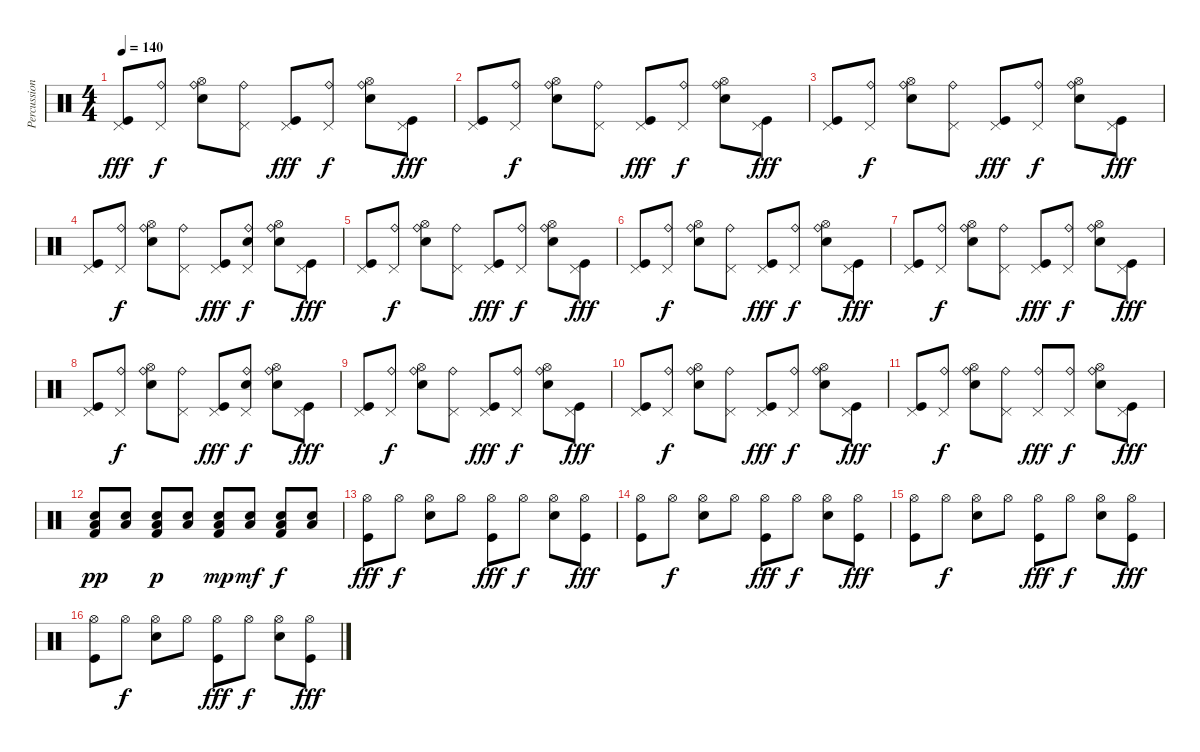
\track ("Percussion" "Percussion") {instrument percussion}
\staff {score}
\articulation defaults
\ts (4 4)
\tempo 140
\clef neutral
\ks c
("Kick (hit)" "Pedal Hi-Hat (hit)").8{dy fff} ("Ride (bell)" "Pedal Hi-Hat (hit)").8{dy f} ("Ride (bell)" "Metronome (bell)" "Hi-Hat (open)").8 ("Ride (bell)" "Pedal Hi-Hat (hit)").8 ("Kick (hit)" "Pedal Hi-Hat (hit)").8{dy fff} ("Ride (bell)" "Pedal Hi-Hat (hit)").8{dy f} ("Ride (bell)" "Metronome (bell)" "Hi-Hat (open)").8 ("Kick (hit)" "Pedal Hi-Hat (hit)").8{dy fff} |
("Kick (hit)" "Pedal Hi-Hat (hit)").8 ("Ride (bell)" "Pedal Hi-Hat (hit)").8{dy f} ("Ride (bell)" "Metronome (bell)" "Hi-Hat (open)").8 ("Ride (bell)" "Pedal Hi-Hat (hit)").8 ("Kick (hit)" "Pedal Hi-Hat (hit)").8{dy fff} ("Ride (bell)" "Pedal Hi-Hat (hit)").8{dy f} ("Ride (bell)" "Metronome (bell)" "Hi-Hat (open)").8 ("Kick (hit)" "Pedal Hi-Hat (hit)").8{dy fff} |
("Kick (hit)" "Pedal Hi-Hat (hit)").8 ("Ride (bell)" "Pedal Hi-Hat (hit)").8{dy f} ("Ride (bell)" "Metronome (bell)" "Hi-Hat (open)").8 ("Ride (bell)" "Pedal Hi-Hat (hit)").8 ("Kick (hit)" "Pedal Hi-Hat (hit)").8{dy fff} ("Ride (bell)" "Pedal Hi-Hat (hit)").8{dy f} ("Ride (bell)" "Metronome (bell)" "Hi-Hat (open)").8 ("Kick (hit)" "Pedal Hi-Hat (hit)").8{dy fff} |
("Kick (hit)" "Pedal Hi-Hat (hit)").8 ("Ride (bell)" "Pedal Hi-Hat (hit)").8{dy f} ("Ride (bell)" "Metronome (bell)" "Hi-Hat (open)").8 ("Ride (bell)" "Pedal Hi-Hat (hit)").8 ("Kick (hit)" "Pedal Hi-Hat (hit)").8{dy fff} ("Ride (bell)" "Metronome (bell)" "Pedal Hi-Hat (hit)").8{dy f} ("Ride (bell)" "Metronome (bell)" "Hi-Hat (open)").8 ("Kick (hit)" "Pedal Hi-Hat (hit)").8{dy fff} |
("Kick (hit)" "Pedal Hi-Hat (hit)").8 ("Ride (bell)" "Pedal Hi-Hat (hit)").8{dy f} ("Ride (bell)" "Metronome (bell)" "Hi-Hat (open)").8 ("Ride (bell)" "Pedal Hi-Hat (hit)").8 ("Kick (hit)" "Pedal Hi-Hat (hit)").8{dy fff} ("Ride (bell)" "Pedal Hi-Hat (hit)").8{dy f} ("Ride (bell)" "Metronome (bell)" "Hi-Hat (open)").8 ("Kick (hit)" "Pedal Hi-Hat (hit)").8{dy fff} |
("Kick (hit)" "Pedal Hi-Hat (hit)").8 ("Ride (bell)" "Pedal Hi-Hat (hit)").8{dy f} ("Ride (bell)" "Metronome (bell)" "Hi-Hat (open)").8 ("Ride (bell)" "Pedal Hi-Hat (hit)").8 ("Kick (hit)" "Pedal Hi-Hat (hit)").8{dy fff} ("Ride (bell)" "Pedal Hi-Hat (hit)").8{dy f} ("Ride (bell)" "Metronome (bell)" "Hi-Hat (open)").8 ("Kick (hit)" "Pedal Hi-Hat (hit)").8{dy fff} |
("Kick (hit)" "Pedal Hi-Hat (hit)").8 ("Ride (bell)" "Pedal Hi-Hat (hit)").8{dy f} ("Ride (bell)" "Metronome (bell)" "Hi-Hat (open)").8 ("Ride (bell)" "Pedal Hi-Hat (hit)").8 ("Kick (hit)" "Pedal Hi-Hat (hit)").8{dy fff} ("Ride (bell)" "Pedal Hi-Hat (hit)").8{dy f} ("Ride (bell)" "Metronome (bell)" "Hi-Hat (open)").8 ("Kick (hit)" "Pedal Hi-Hat (hit)").8{dy fff} |
("Kick (hit)" "Pedal Hi-Hat (hit)").8 ("Ride (bell)" "Pedal Hi-Hat (hit)").8{dy f} ("Ride (bell)" "Metronome (bell)" "Hi-Hat (open)").8 ("Ride (bell)" "Pedal Hi-Hat (hit)").8 ("Kick (hit)" "Pedal Hi-Hat (hit)").8{dy fff} ("Ride (bell)" "Metronome (bell)" "Pedal Hi-Hat (hit)").8{dy f} ("Ride (bell)" "Metronome (bell)" "Hi-Hat (open)").8 ("Kick (hit)" "Pedal Hi-Hat (hit)").8{dy fff} |
("Kick (hit)" "Pedal Hi-Hat (hit)").8 ("Ride (bell)" "Pedal Hi-Hat (hit)").8{dy f} ("Ride (bell)" "Metronome (bell)" "Hi-Hat (open)").8 ("Ride (bell)" "Pedal Hi-Hat (hit)").8 ("Kick (hit)" "Pedal Hi-Hat (hit)").8{dy fff} ("Ride (bell)" "Pedal Hi-Hat (hit)").8{dy f} ("Ride (bell)" "Metronome (bell)" "Hi-Hat (open)").8 ("Kick (hit)" "Pedal Hi-Hat (hit)").8{dy fff} |
("Kick (hit)" "Pedal Hi-Hat (hit)").8 ("Ride (bell)" "Pedal Hi-Hat (hit)").8{dy f} ("Ride (bell)" "Metronome (bell)" "Hi-Hat (open)").8 ("Ride (bell)" "Pedal Hi-Hat (hit)").8 ("Kick (hit)" "Pedal Hi-Hat (hit)").8{dy fff} ("Ride (bell)" "Pedal Hi-Hat (hit)").8{dy f} ("Ride (bell)" "Metronome (bell)" "Hi-Hat (open)").8 ("Kick (hit)" "Pedal Hi-Hat (hit)").8{dy fff} |
("Kick (hit)" "Pedal Hi-Hat (hit)").8 ("Ride (bell)" "Pedal Hi-Hat (hit)").8{dy f} ("Ride (bell)" "Metronome (bell)" "Hi-Hat (open)").8 ("Ride (bell)" "Pedal Hi-Hat (hit)").8 ("Ride (bell)" "Pedal Hi-Hat (hit)").8{dy fff} ("Ride (bell)" "Pedal Hi-Hat (hit)").8{dy f} ("Ride (bell)" "Metronome (bell)" "Hi-Hat (open)").8 ("Kick (hit)" "Pedal Hi-Hat (hit)").8{dy fff} |
("Snare (hit) 2" "Low Tom (hit)" "Kick (hit) 2").8{dy pp} ("Snare (hit) 2" "Low Tom (hit)").8 ("Snare (hit) 2" "Low Tom (hit)" "Kick (hit) 2").8{dy p} ("Snare (hit) 2" "Low Tom (hit)").8 ("Snare (hit) 2" "Low Tom (hit)" "Kick (hit) 2").8{dy mp} ("Snare (hit) 2" "Low Tom (hit)").8{dy mf} ("Snare (hit) 2" "Low Tom (hit)" "Kick (hit) 2").8{dy f} ("Snare (hit) 2" "Low Tom (hit)").8 |
("Kick (hit)" "Hi-Hat (open)").8{dy fff} "Hi-Hat (open)".8{dy f} ("Metronome (bell)" "Hi-Hat (open)").8 "Hi-Hat (open)".8 ("Kick (hit)" "Hi-Hat (open)").8{dy fff} "Hi-Hat (open)".8{dy f} ("Metronome (bell)" "Hi-Hat (open)").8 ("Kick (hit)" "Hi-Hat (open)").8{dy fff} |
("Kick (hit)" "Hi-Hat (open)").8 "Hi-Hat (open)".8{dy f} ("Metronome (bell)" "Hi-Hat (open)").8 "Hi-Hat (open)".8 ("Kick (hit)" "Hi-Hat (open)").8{dy fff} "Hi-Hat (open)".8{dy f} ("Metronome (bell)" "Hi-Hat (open)").8 ("Kick (hit)" "Hi-Hat (open)").8{dy fff} |
("Kick (hit)" "Hi-Hat (open)").8 "Hi-Hat (open)".8{dy f} ("Metronome (bell)" "Hi-Hat (open)").8 "Hi-Hat (open)".8 ("Kick (hit)" "Hi-Hat (open)").8{dy fff} "Hi-Hat (open)".8{dy f} ("Metronome (bell)" "Hi-Hat (open)").8 ("Kick (hit)" "Hi-Hat (open)").8{dy fff} |
("Kick (hit)" "Hi-Hat (open)").8 "Hi-Hat (open)".8{dy f} ("Metronome (bell)" "Hi-Hat (open)").8 "Hi-Hat (open)".8 ("Kick (hit)" "Hi-Hat (open)").8{dy fff} "Hi-Hat (open)".8{dy f} ("Metronome (bell)" "Hi-Hat (open)").8 ("Kick (hit)" "Hi-Hat (open)").8{dy fff}
